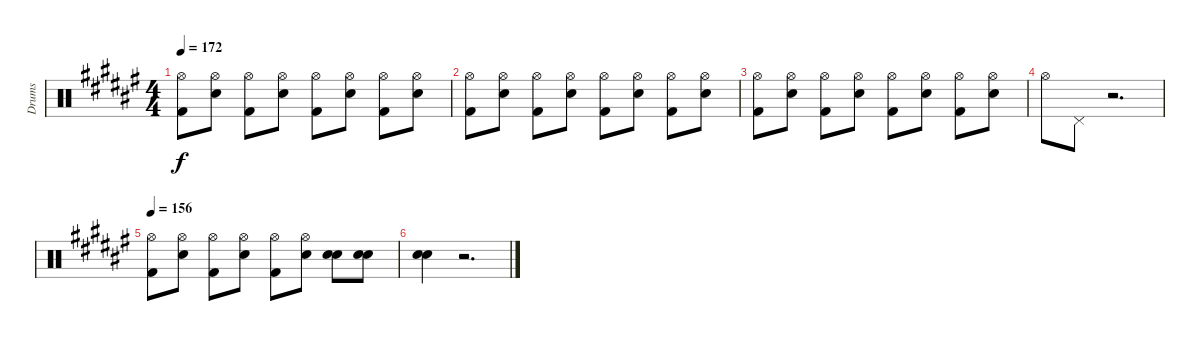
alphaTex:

\track ("Drums" "Drums") {instrument percussion}
\staff {score}
\articulation defaults
\ts (4 4)
\tempo 172
\clef neutral
\ks d#minor
("Hi-Hat (open)" "Kick (hit) 2").8{dy f} ("Hi-Hat (open)" "Electric Snare (hit)").8 ("Hi-Hat (open)" "Kick (hit) 2").8 ("Hi-Hat (open)" "Electric Snare (hit)").8 ("Hi-Hat (open)" "Kick (hit) 2").8 ("Hi-Hat (open)" "Electric Snare (hit)").8 ("Hi-Hat (open)" "Kick (hit) 2").8 ("Hi-Hat (open)" "Electric Snare (hit)").8 |
("Hi-Hat (open)" "Kick (hit) 2").8 ("Hi-Hat (open)" "Electric Snare (hit)").8 ("Hi-Hat (open)" "Kick (hit) 2").8 ("Hi-Hat (open)" "Electric Snare (hit)").8 ("Hi-Hat (open)" "Kick (hit) 2").8 ("Hi-Hat (open)" "Electric Snare (hit)").8 ("Hi-Hat (open)" "Kick (hit) 2").8 ("Hi-Hat (open)" "Electric Snare (hit)").8 |
("Hi-Hat (open)" "Kick (hit) 2").8 ("Hi-Hat (open)" "Electric Snare (hit)").8 ("Hi-Hat (open)" "Kick (hit) 2").8 ("Hi-Hat (open)" "Electric Snare (hit)").8 ("Hi-Hat (open)" "Kick (hit) 2").8 ("Hi-Hat (open)" "Electric Snare (hit)").8 ("Hi-Hat (open)" "Kick (hit) 2").8 ("Hi-Hat (open)" "Electric Snare (hit)").8 |
"Hi-Hat (open)".8 "Pedal Hi-Hat (hit)".8 r.2{d} |
\tempo 156
("Hi-Hat (open)" "Kick (hit) 2").8 ("Hi-Hat (open)" "Electric Snare (hit)").8 ("Hi-Hat (open)" "Kick (hit) 2").8 ("Hi-Hat (open)" "Electric Snare (hit)").8 ("Hi-Hat (open)" "Kick (hit) 2").8 ("Hi-Hat (open)" "Electric Snare (hit)").8 ("Electric Snare (hit)" "Electric Snare (hit)").8 ("Electric Snare (hit)" "Electric Snare (hit)").8 |
("Electric Snare (hit)" "Electric Snare (hit)").4 r.2{d}
